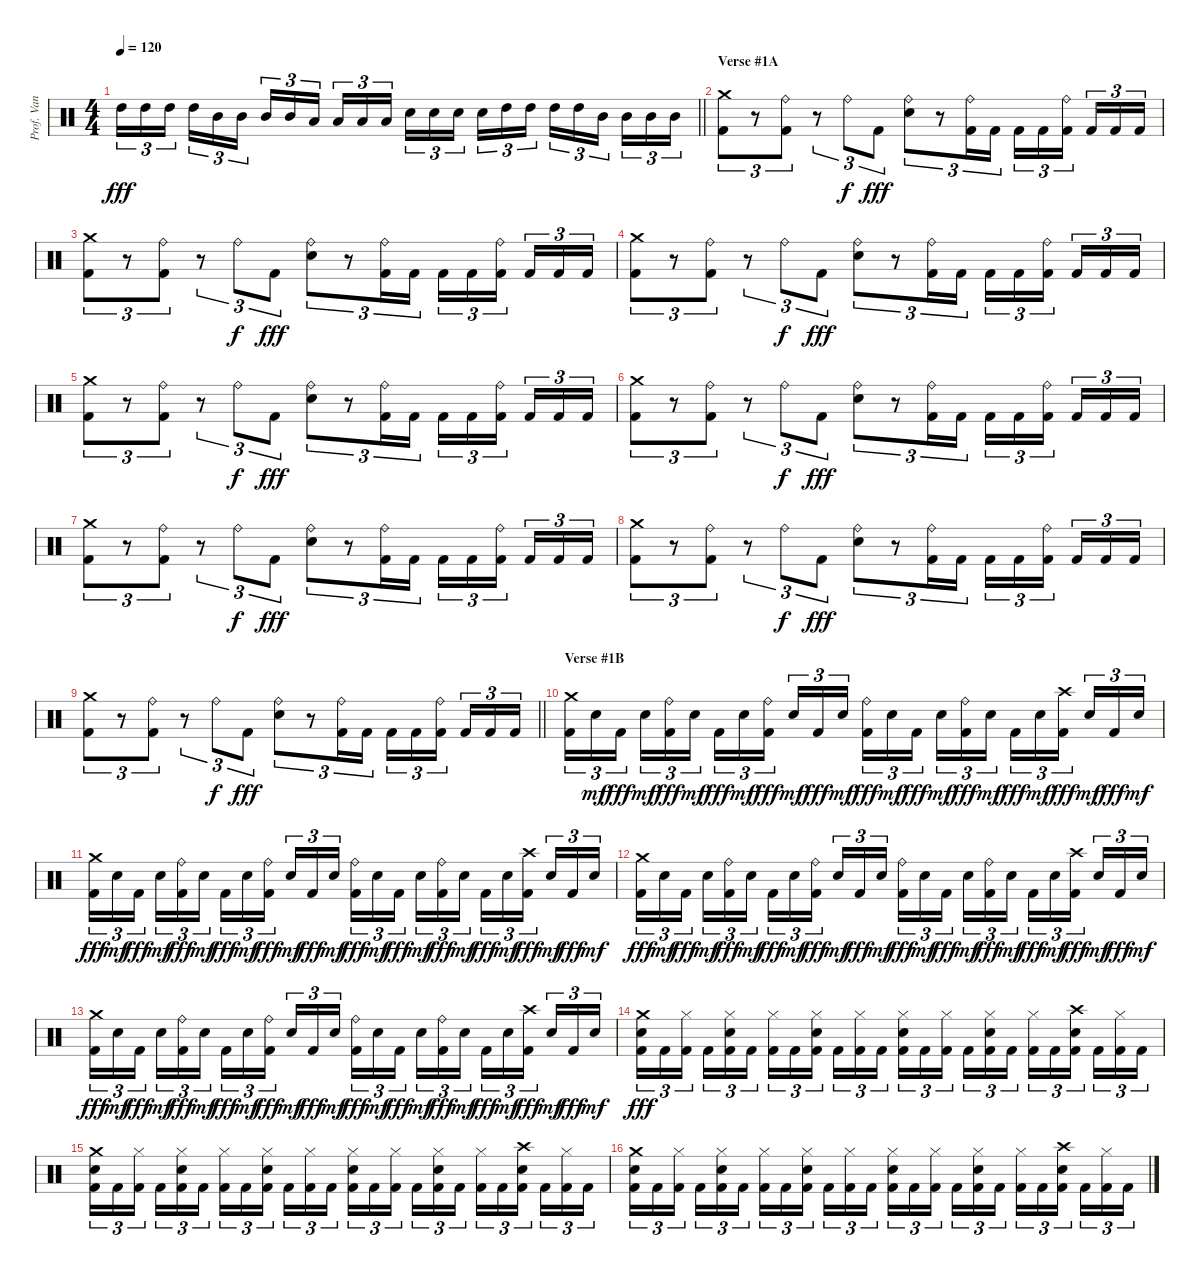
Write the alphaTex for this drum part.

\track ("Prof. Van Helsing (Drums)" "Prof. Van ") {instrument percussion}
\staff {score}
\articulation defaults
\ts (4 4)
\tempo 120
\clef neutral
\barLineRight lightlight
\ks c "High Tom (hit)".16{tu (3 2) dy fff} "High Tom (hit)".16{tu (3 2)} "High Tom (hit)".16{tu (3 2) beam splitsecondary} "High Tom (hit)".16{tu (3 2)} "Mid Tom (hit)".16{tu (3 2)} "Mid Tom (hit)".16{tu (3 2)} "Mid Tom (hit)".16{tu (3 2)} "Mid Tom (hit)".16{tu (3 2)} "Low Tom (hit)".16{tu (3 2) beam splitsecondary} "Low Tom (hit)".16{tu (3 2)} "Low Tom (hit)".16{tu (3 2)} "Low Tom (hit)".16{tu (3 2)} "Snare (hit) 2".16{tu (3 2)} "Snare (hit) 2".16{tu (3 2)} "Snare (hit) 2".16{tu (3 2) beam splitsecondary} "Snare (hit) 2".16{tu (3 2)} "High Tom (hit)".16{tu (3 2)} "High Tom (hit)".16{tu (3 2)} "High Tom (hit)".16{tu (3 2)} "High Tom (hit)".16{tu (3 2)} "Mid Tom (hit)".16{tu (3 2) beam splitsecondary} "Mid Tom (hit)".16{tu (3 2)} "Mid Tom (hit)".16{tu (3 2)} "Mid Tom (hit)".16{tu (3 2)}
|
\section ("" "Verse #1A")
("Crash medium (hit)" "Kick (hit) 2").8{tu (3 2)} r.8{tu (3 2)} ("Ride (bell)" "Kick (hit) 2").8{tu (3 2)} r.8{tu (3 2)} "Ride (bell)".8{tu (3 2) dy f} "Kick (hit) 2".8{tu (3 2) dy fff} ("Ride (bell)" "Snare (hit) 2").8{tu (3 2)} r.8{tu (3 2)} ("Ride (bell)" "Kick (hit) 2").16{tu (3 2)} "Kick (hit) 2".16{tu (3 2)} "Kick (hit) 2".16{tu (3 2)} "Kick (hit) 2".16{tu (3 2)} ("Ride (bell)" "Kick (hit) 2").16{tu (3 2) beam splitsecondary} "Kick (hit) 2".16{tu (3 2)} "Kick (hit) 2".16{tu (3 2)} "Kick (hit) 2".16{tu (3 2)} |
("Crash medium (hit)" "Kick (hit) 2").8{tu (3 2)} r.8{tu (3 2)} ("Ride (bell)" "Kick (hit) 2").8{tu (3 2)} r.8{tu (3 2)} "Ride (bell)".8{tu (3 2) dy f} "Kick (hit) 2".8{tu (3 2) dy fff} ("Ride (bell)" "Snare (hit) 2").8{tu (3 2)} r.8{tu (3 2)} ("Ride (bell)" "Kick (hit) 2").16{tu (3 2)} "Kick (hit) 2".16{tu (3 2)} "Kick (hit) 2".16{tu (3 2)} "Kick (hit) 2".16{tu (3 2)} ("Ride (bell)" "Kick (hit) 2").16{tu (3 2) beam splitsecondary} "Kick (hit) 2".16{tu (3 2)} "Kick (hit) 2".16{tu (3 2)} "Kick (hit) 2".16{tu (3 2)} |
("Crash medium (hit)" "Kick (hit) 2").8{tu (3 2)} r.8{tu (3 2)} ("Ride (bell)" "Kick (hit) 2").8{tu (3 2)} r.8{tu (3 2)} "Ride (bell)".8{tu (3 2) dy f} "Kick (hit) 2".8{tu (3 2) dy fff} ("Ride (bell)" "Snare (hit) 2").8{tu (3 2)} r.8{tu (3 2)} ("Ride (bell)" "Kick (hit) 2").16{tu (3 2)} "Kick (hit) 2".16{tu (3 2)} "Kick (hit) 2".16{tu (3 2)} "Kick (hit) 2".16{tu (3 2)} ("Ride (bell)" "Kick (hit) 2").16{tu (3 2) beam splitsecondary} "Kick (hit) 2".16{tu (3 2)} "Kick (hit) 2".16{tu (3 2)} "Kick (hit) 2".16{tu (3 2)} |
("Crash medium (hit)" "Kick (hit) 2").8{tu (3 2)} r.8{tu (3 2)} ("Ride (bell)" "Kick (hit) 2").8{tu (3 2)} r.8{tu (3 2)} "Ride (bell)".8{tu (3 2) dy f} "Kick (hit) 2".8{tu (3 2) dy fff} ("Ride (bell)" "Snare (hit) 2").8{tu (3 2)} r.8{tu (3 2)} ("Ride (bell)" "Kick (hit) 2").16{tu (3 2)} "Kick (hit) 2".16{tu (3 2)} "Kick (hit) 2".16{tu (3 2)} "Kick (hit) 2".16{tu (3 2)} ("Ride (bell)" "Kick (hit) 2").16{tu (3 2) beam splitsecondary} "Kick (hit) 2".16{tu (3 2)} "Kick (hit) 2".16{tu (3 2)} "Kick (hit) 2".16{tu (3 2)} |
("Crash medium (hit)" "Kick (hit) 2").8{tu (3 2)} r.8{tu (3 2)} ("Ride (bell)" "Kick (hit) 2").8{tu (3 2)} r.8{tu (3 2)} "Ride (bell)".8{tu (3 2) dy f} "Kick (hit) 2".8{tu (3 2) dy fff} ("Ride (bell)" "Snare (hit) 2").8{tu (3 2)} r.8{tu (3 2)} ("Ride (bell)" "Kick (hit) 2").16{tu (3 2)} "Kick (hit) 2".16{tu (3 2)} "Kick (hit) 2".16{tu (3 2)} "Kick (hit) 2".16{tu (3 2)} ("Ride (bell)" "Kick (hit) 2").16{tu (3 2) beam splitsecondary} "Kick (hit) 2".16{tu (3 2)} "Kick (hit) 2".16{tu (3 2)} "Kick (hit) 2".16{tu (3 2)} |
("Crash medium (hit)" "Kick (hit) 2").8{tu (3 2)} r.8{tu (3 2)} ("Ride (bell)" "Kick (hit) 2").8{tu (3 2)} r.8{tu (3 2)} "Ride (bell)".8{tu (3 2) dy f} "Kick (hit) 2".8{tu (3 2) dy fff} ("Ride (bell)" "Snare (hit) 2").8{tu (3 2)} r.8{tu (3 2)} ("Ride (bell)" "Kick (hit) 2").16{tu (3 2)} "Kick (hit) 2".16{tu (3 2)} "Kick (hit) 2".16{tu (3 2)} "Kick (hit) 2".16{tu (3 2)} ("Ride (bell)" "Kick (hit) 2").16{tu (3 2) beam splitsecondary} "Kick (hit) 2".16{tu (3 2)} "Kick (hit) 2".16{tu (3 2)} "Kick (hit) 2".16{tu (3 2)} |
("Crash medium (hit)" "Kick (hit) 2").8{tu (3 2)} r.8{tu (3 2)} ("Ride (bell)" "Kick (hit) 2").8{tu (3 2)} r.8{tu (3 2)} "Ride (bell)".8{tu (3 2) dy f} "Kick (hit) 2".8{tu (3 2) dy fff} ("Ride (bell)" "Snare (hit) 2").8{tu (3 2)} r.8{tu (3 2)} ("Ride (bell)" "Kick (hit) 2").16{tu (3 2)} "Kick (hit) 2".16{tu (3 2)} "Kick (hit) 2".16{tu (3 2)} "Kick (hit) 2".16{tu (3 2)} ("Ride (bell)" "Kick (hit) 2").16{tu (3 2) beam splitsecondary} "Kick (hit) 2".16{tu (3 2)} "Kick (hit) 2".16{tu (3 2)} "Kick (hit) 2".16{tu (3 2)} |
\barLineRight lightlight
("Crash medium (hit)" "Kick (hit) 2").8{tu (3 2)} r.8{tu (3 2)} ("Ride (bell)" "Kick (hit) 2").8{tu (3 2)} r.8{tu (3 2)} "Ride (bell)".8{tu (3 2) dy f} "Kick (hit) 2".8{tu (3 2) dy fff} ("Ride (bell)" "Snare (hit) 2").8{tu (3 2)} r.8{tu (3 2)} ("Ride (bell)" "Kick (hit) 2").16{tu (3 2)} "Kick (hit) 2".16{tu (3 2)} "Kick (hit) 2".16{tu (3 2)} "Kick (hit) 2".16{tu (3 2)} ("Ride (bell)" "Kick (hit) 2").16{tu (3 2) beam splitsecondary} "Kick (hit) 2".16{tu (3 2)} "Kick (hit) 2".16{tu (3 2)} "Kick (hit) 2".16{tu (3 2)} |
\section ("" "Verse #1B")
("Crash medium (hit)" "Kick (hit) 2").16{tu (3 2)} "Snare (hit) 2".16{tu (3 2) dy mf} "Kick (hit) 2".16{tu (3 2) dy fff beam splitsecondary} "Snare (hit) 2".16{tu (3 2) dy mf} ("Ride (bell)" "Kick (hit) 2").16{tu (3 2) dy fff} "Snare (hit) 2".16{tu (3 2) dy mf} "Kick (hit) 2".16{tu (3 2) dy fff} "Snare (hit) 2".16{tu (3 2) dy mf} ("Ride (bell)" "Kick (hit) 2").16{tu (3 2) dy fff beam splitsecondary} "Snare (hit) 2".16{tu (3 2) dy mf} "Kick (hit) 2".16{tu (3 2) dy fff} "Snare (hit) 2".16{tu (3 2) dy mf} ("Ride (bell)" "Kick (hit) 2").16{tu (3 2) dy fff} "Snare (hit) 2".16{tu (3 2) dy mf} "Kick (hit) 2".16{tu (3 2) dy fff beam splitsecondary} "Snare (hit) 2".16{tu (3 2) dy mf} ("Ride (bell)" "Kick (hit) 2").16{tu (3 2) dy fff} "Snare (hit) 2".16{tu (3 2) dy mf} "Kick (hit) 2".16{tu (3 2) dy fff} "Snare (hit) 2".16{tu (3 2) dy mf} ("Crash high (hit)" "Kick (hit) 2").16{tu (3 2) dy fff beam splitsecondary} "Snare (hit) 2".16{tu (3 2) dy mf} "Kick (hit) 2".16{tu (3 2) dy fff} "Snare (hit) 2".16{tu (3 2) dy mf} |
("Crash medium (hit)" "Kick (hit) 2").16{tu (3 2) dy fff} "Snare (hit) 2".16{tu (3 2) dy mf} "Kick (hit) 2".16{tu (3 2) dy fff beam splitsecondary} "Snare (hit) 2".16{tu (3 2) dy mf} ("Ride (bell)" "Kick (hit) 2").16{tu (3 2) dy fff} "Snare (hit) 2".16{tu (3 2) dy mf} "Kick (hit) 2".16{tu (3 2) dy fff} "Snare (hit) 2".16{tu (3 2) dy mf} ("Ride (bell)" "Kick (hit) 2").16{tu (3 2) dy fff beam splitsecondary} "Snare (hit) 2".16{tu (3 2) dy mf} "Kick (hit) 2".16{tu (3 2) dy fff} "Snare (hit) 2".16{tu (3 2) dy mf} ("Ride (bell)" "Kick (hit) 2").16{tu (3 2) dy fff} "Snare (hit) 2".16{tu (3 2) dy mf} "Kick (hit) 2".16{tu (3 2) dy fff beam splitsecondary} "Snare (hit) 2".16{tu (3 2) dy mf} ("Ride (bell)" "Kick (hit) 2").16{tu (3 2) dy fff} "Snare (hit) 2".16{tu (3 2) dy mf} "Kick (hit) 2".16{tu (3 2) dy fff} "Snare (hit) 2".16{tu (3 2) dy mf} ("Crash high (hit)" "Kick (hit) 2").16{tu (3 2) dy fff beam splitsecondary} "Snare (hit) 2".16{tu (3 2) dy mf} "Kick (hit) 2".16{tu (3 2) dy fff} "Snare (hit) 2".16{tu (3 2) dy mf} |
("Crash medium (hit)" "Kick (hit) 2").16{tu (3 2) dy fff} "Snare (hit) 2".16{tu (3 2) dy mf} "Kick (hit) 2".16{tu (3 2) dy fff beam splitsecondary} "Snare (hit) 2".16{tu (3 2) dy mf} ("Ride (bell)" "Kick (hit) 2").16{tu (3 2) dy fff} "Snare (hit) 2".16{tu (3 2) dy mf} "Kick (hit) 2".16{tu (3 2) dy fff} "Snare (hit) 2".16{tu (3 2) dy mf} ("Ride (bell)" "Kick (hit) 2").16{tu (3 2) dy fff beam splitsecondary} "Snare (hit) 2".16{tu (3 2) dy mf} "Kick (hit) 2".16{tu (3 2) dy fff} "Snare (hit) 2".16{tu (3 2) dy mf} ("Ride (bell)" "Kick (hit) 2").16{tu (3 2) dy fff} "Snare (hit) 2".16{tu (3 2) dy mf} "Kick (hit) 2".16{tu (3 2) dy fff beam splitsecondary} "Snare (hit) 2".16{tu (3 2) dy mf} ("Ride (bell)" "Kick (hit) 2").16{tu (3 2) dy fff} "Snare (hit) 2".16{tu (3 2) dy mf} "Kick (hit) 2".16{tu (3 2) dy fff} "Snare (hit) 2".16{tu (3 2) dy mf} ("Crash high (hit)" "Kick (hit) 2").16{tu (3 2) dy fff beam splitsecondary} "Snare (hit) 2".16{tu (3 2) dy mf} "Kick (hit) 2".16{tu (3 2) dy fff} "Snare (hit) 2".16{tu (3 2) dy mf} |
("Crash medium (hit)" "Kick (hit) 2").16{tu (3 2) dy fff} "Snare (hit) 2".16{tu (3 2) dy mf} "Kick (hit) 2".16{tu (3 2) dy fff beam splitsecondary} "Snare (hit) 2".16{tu (3 2) dy mf} ("Ride (bell)" "Kick (hit) 2").16{tu (3 2) dy fff} "Snare (hit) 2".16{tu (3 2) dy mf} "Kick (hit) 2".16{tu (3 2) dy fff} "Snare (hit) 2".16{tu (3 2) dy mf} ("Ride (bell)" "Kick (hit) 2").16{tu (3 2) dy fff beam splitsecondary} "Snare (hit) 2".16{tu (3 2) dy mf} "Kick (hit) 2".16{tu (3 2) dy fff} "Snare (hit) 2".16{tu (3 2) dy mf} ("Ride (bell)" "Kick (hit) 2").16{tu (3 2) dy fff} "Snare (hit) 2".16{tu (3 2) dy mf} "Kick (hit) 2".16{tu (3 2) dy fff beam splitsecondary} "Snare (hit) 2".16{tu (3 2) dy mf} ("Ride (bell)" "Kick (hit) 2").16{tu (3 2) dy fff} "Snare (hit) 2".16{tu (3 2) dy mf} "Kick (hit) 2".16{tu (3 2) dy fff} "Snare (hit) 2".16{tu (3 2) dy mf} ("Crash high (hit)" "Kick (hit) 2").16{tu (3 2) dy fff beam splitsecondary} "Snare (hit) 2".16{tu (3 2) dy mf} "Kick (hit) 2".16{tu (3 2) dy fff} "Snare (hit) 2".16{tu (3 2) dy mf} |
("Crash medium (hit)" "Snare (hit) 2" "Kick (hit) 2").16{tu (3 2) dy fff} "Kick (hit) 2".16{tu (3 2)} ("Hi-Hat (closed)" "Kick (hit) 2").16{tu (3 2) beam splitsecondary} "Kick (hit) 2".16{tu (3 2)} ("Hi-Hat (closed)" "Snare (hit) 2" "Kick (hit) 2").16{tu (3 2)} "Kick (hit) 2".16{tu (3 2)} ("Hi-Hat (closed)" "Kick (hit) 2").16{tu (3 2)} "Kick (hit) 2".16{tu (3 2)} ("Hi-Hat (closed)" "Snare (hit) 2" "Kick (hit) 2").16{tu (3 2) beam splitsecondary} "Kick (hit) 2".16{tu (3 2)} ("Hi-Hat (closed)" "Kick (hit) 2").16{tu (3 2)} "Kick (hit) 2".16{tu (3 2)} ("Hi-Hat (closed)" "Snare (hit) 2" "Kick (hit) 2").16{tu (3 2)} "Kick (hit) 2".16{tu (3 2)} ("Hi-Hat (closed)" "Kick (hit) 2").16{tu (3 2) beam splitsecondary} "Kick (hit) 2".16{tu (3 2)} ("Hi-Hat (closed)" "Snare (hit) 2" "Kick (hit) 2").16{tu (3 2)} "Kick (hit) 2".16{tu (3 2)} ("Hi-Hat (closed)" "Kick (hit) 2").16{tu (3 2)} "Kick (hit) 2".16{tu (3 2)} ("Crash high (hit)" "Snare (hit) 2" "Kick (hit) 2").16{tu (3 2) beam splitsecondary} "Kick (hit) 2".16{tu (3 2)} ("Hi-Hat (closed)" "Kick (hit) 2").16{tu (3 2)} "Kick (hit) 2".16{tu (3 2)} |
("Crash medium (hit)" "Snare (hit) 2" "Kick (hit) 2").16{tu (3 2)} "Kick (hit) 2".16{tu (3 2)} ("Hi-Hat (closed)" "Kick (hit) 2").16{tu (3 2) beam splitsecondary} "Kick (hit) 2".16{tu (3 2)} ("Hi-Hat (closed)" "Snare (hit) 2" "Kick (hit) 2").16{tu (3 2)} "Kick (hit) 2".16{tu (3 2)} ("Hi-Hat (closed)" "Kick (hit) 2").16{tu (3 2)} "Kick (hit) 2".16{tu (3 2)} ("Hi-Hat (closed)" "Snare (hit) 2" "Kick (hit) 2").16{tu (3 2) beam splitsecondary} "Kick (hit) 2".16{tu (3 2)} ("Hi-Hat (closed)" "Kick (hit) 2").16{tu (3 2)} "Kick (hit) 2".16{tu (3 2)} ("Hi-Hat (closed)" "Snare (hit) 2" "Kick (hit) 2").16{tu (3 2)} "Kick (hit) 2".16{tu (3 2)} ("Hi-Hat (closed)" "Kick (hit) 2").16{tu (3 2) beam splitsecondary} "Kick (hit) 2".16{tu (3 2)} ("Hi-Hat (closed)" "Snare (hit) 2" "Kick (hit) 2").16{tu (3 2)} "Kick (hit) 2".16{tu (3 2)} ("Hi-Hat (closed)" "Kick (hit) 2").16{tu (3 2)} "Kick (hit) 2".16{tu (3 2)} ("Crash high (hit)" "Snare (hit) 2" "Kick (hit) 2").16{tu (3 2) beam splitsecondary} "Kick (hit) 2".16{tu (3 2)} ("Hi-Hat (closed)" "Kick (hit) 2").16{tu (3 2)} "Kick (hit) 2".16{tu (3 2)} |
("Crash medium (hit)" "Snare (hit) 2" "Kick (hit) 2").16{tu (3 2)} "Kick (hit) 2".16{tu (3 2)} ("Hi-Hat (closed)" "Kick (hit) 2").16{tu (3 2) beam splitsecondary} "Kick (hit) 2".16{tu (3 2)} ("Hi-Hat (closed)" "Snare (hit) 2" "Kick (hit) 2").16{tu (3 2)} "Kick (hit) 2".16{tu (3 2)} ("Hi-Hat (closed)" "Kick (hit) 2").16{tu (3 2)} "Kick (hit) 2".16{tu (3 2)} ("Hi-Hat (closed)" "Snare (hit) 2" "Kick (hit) 2").16{tu (3 2) beam splitsecondary} "Kick (hit) 2".16{tu (3 2)} ("Hi-Hat (closed)" "Kick (hit) 2").16{tu (3 2)} "Kick (hit) 2".16{tu (3 2)} ("Hi-Hat (closed)" "Snare (hit) 2" "Kick (hit) 2").16{tu (3 2)} "Kick (hit) 2".16{tu (3 2)} ("Hi-Hat (closed)" "Kick (hit) 2").16{tu (3 2) beam splitsecondary} "Kick (hit) 2".16{tu (3 2)} ("Hi-Hat (closed)" "Snare (hit) 2" "Kick (hit) 2").16{tu (3 2)} "Kick (hit) 2".16{tu (3 2)} ("Hi-Hat (closed)" "Kick (hit) 2").16{tu (3 2)} "Kick (hit) 2".16{tu (3 2)} ("Crash high (hit)" "Snare (hit) 2" "Kick (hit) 2").16{tu (3 2) beam splitsecondary} "Kick (hit) 2".16{tu (3 2)} ("Hi-Hat (closed)" "Kick (hit) 2").16{tu (3 2)} "Kick (hit) 2".16{tu (3 2)}
